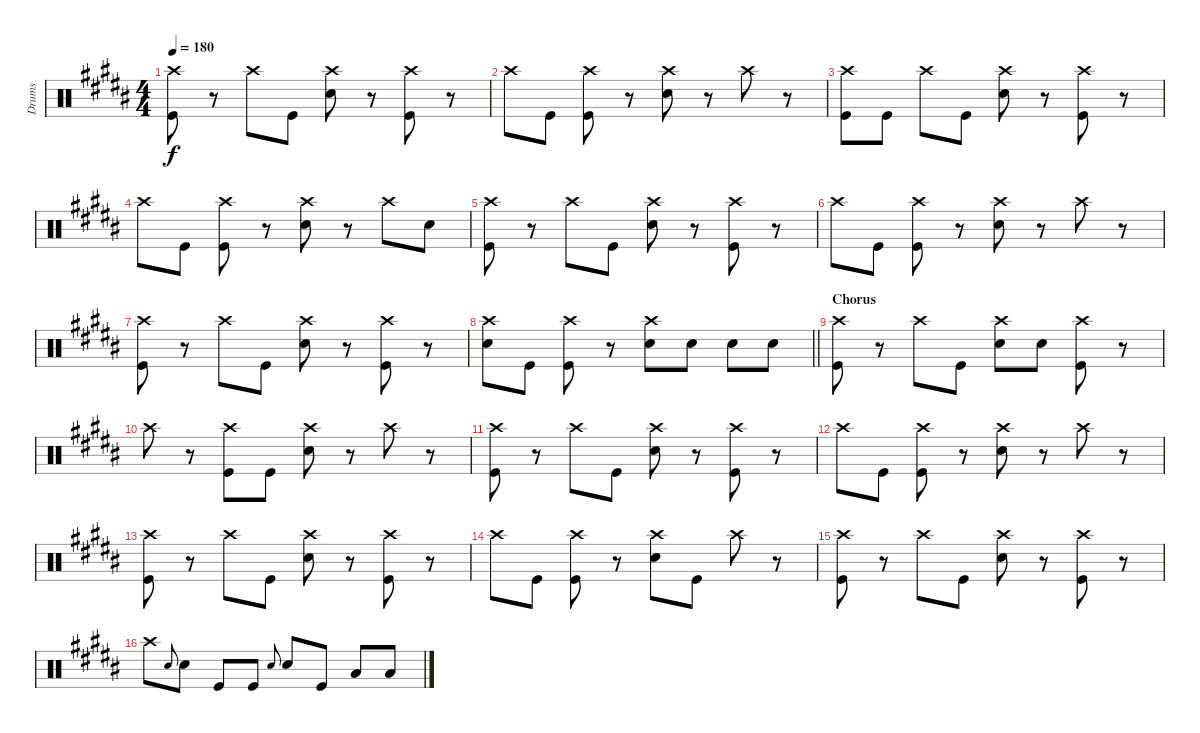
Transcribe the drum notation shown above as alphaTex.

\track ("Drums" "Drums") {instrument percussion}
\staff {score}
\articulation defaults
\ts (4 4)
\tempo 180
\clef neutral
\ks b
("Crash high (hit)" "Kick (hit)").8{dy f} r.8 "Crash high (hit)".8 "Kick (hit)".8 ("Crash high (hit)" "Snare (hit) 2").8 r.8 ("Crash high (hit)" "Kick (hit)").8 r.8 |
"Crash high (hit)".8 "Kick (hit)".8 ("Crash high (hit)" "Kick (hit)").8 r.8 ("Crash high (hit)" "Snare (hit) 2").8 r.8 "Crash high (hit)".8 r.8 |
("Crash high (hit)" "Kick (hit)").8 "Kick (hit)".8 "Crash high (hit)".8 "Kick (hit)".8 ("Crash high (hit)" "Snare (hit) 2").8 r.8 ("Crash high (hit)" "Kick (hit)").8 r.8 |
"Crash high (hit)".8 "Kick (hit)".8 ("Crash high (hit)" "Kick (hit)").8 r.8 ("Crash high (hit)" "Snare (hit) 2").8 r.8 "Crash high (hit)".8 "Snare (hit) 2".8 |
("Crash high (hit)" "Kick (hit)").8 r.8 "Crash high (hit)".8 "Kick (hit)".8 ("Crash high (hit)" "Snare (hit) 2").8 r.8 ("Crash high (hit)" "Kick (hit)").8 r.8 |
"Crash high (hit)".8 "Kick (hit)".8 ("Crash high (hit)" "Kick (hit)").8 r.8 ("Crash high (hit)" "Snare (hit) 2").8 r.8 "Crash high (hit)".8 r.8 |
("Crash high (hit)" "Kick (hit)").8 r.8 "Crash high (hit)".8 "Kick (hit)".8 ("Crash high (hit)" "Snare (hit) 2").8 r.8 ("Crash high (hit)" "Kick (hit)").8 r.8 |
\barLineRight lightlight
("Crash high (hit)" "Snare (hit) 2").8 "Kick (hit)".8 ("Crash high (hit)" "Kick (hit)").8 r.8 ("Crash high (hit)" "Snare (hit) 2").8 "Snare (hit) 2".8 "Snare (hit) 2".8 "Snare (hit) 2".8 |
\section ("" "Chorus")
("Crash high (hit)" "Kick (hit)").8 r.8 "Crash high (hit)".8 "Kick (hit)".8 ("Crash high (hit)" "Snare (hit) 2").8 "Snare (hit) 2".8 ("Crash high (hit)" "Kick (hit)").8 r.8 |
"Crash high (hit)".8 r.8 ("Crash high (hit)" "Kick (hit)").8 "Kick (hit)".8 ("Crash high (hit)" "Snare (hit) 2").8 r.8 "Crash high (hit)".8 r.8 |
("Crash high (hit)" "Kick (hit)").8 r.8 "Crash high (hit)".8 "Kick (hit)".8 ("Crash high (hit)" "Snare (hit) 2").8 r.8 ("Crash high (hit)" "Kick (hit)").8 r.8 |
"Crash high (hit)".8 "Kick (hit)".8 ("Crash high (hit)" "Kick (hit)").8 r.8 ("Crash high (hit)" "Snare (hit) 2").8 r.8 "Crash high (hit)".8 r.8 |
("Crash high (hit)" "Kick (hit)").8 r.8 "Crash high (hit)".8 "Kick (hit)".8 ("Crash high (hit)" "Snare (hit) 2").8 r.8 ("Crash high (hit)" "Kick (hit)").8 r.8 |
"Crash high (hit)".8 "Kick (hit)".8 ("Crash high (hit)" "Kick (hit)").8 r.8 ("Crash high (hit)" "Snare (hit) 2").8 "Kick (hit)".8 "Crash high (hit)".8 r.8 |
("Crash high (hit)" "Kick (hit)").8 r.8 "Crash high (hit)".8 "Kick (hit)".8 ("Crash high (hit)" "Snare (hit) 2").8 r.8 ("Crash high (hit)" "Kick (hit)").8 r.8 |
"Crash high (hit)".8 "Snare (hit) 2".8{gr onbeat} "Snare (hit) 2".8 "Kick (hit)".8 "Kick (hit)".8 "Snare (hit) 2".8{gr onbeat} "Snare (hit) 2".8 "Kick (hit)".8 "Low Floor Tom (hit)".8 "Low Floor Tom (hit)".8
